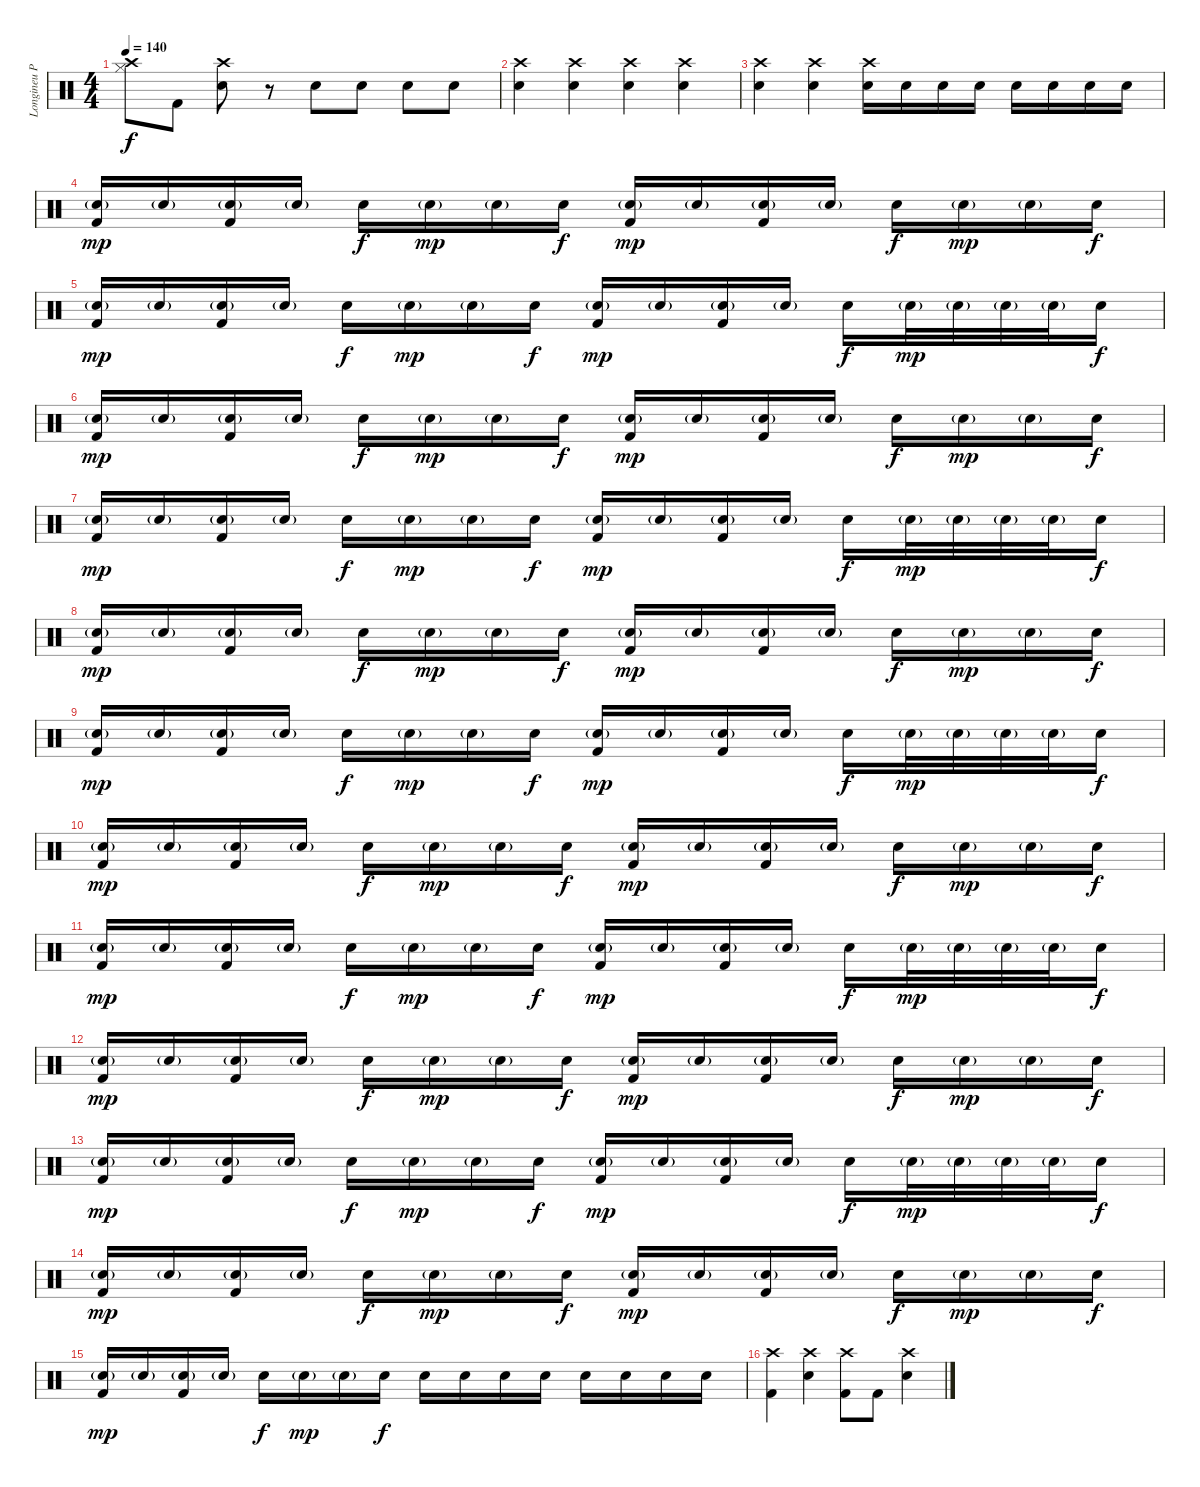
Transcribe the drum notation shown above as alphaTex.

\track ("Longineu Parsons III Drums" "Longineu P") {instrument percussion}
\staff {score}
\articulation defaults
\ts (4 4)
\tempo 140
\clef neutral
\ks c
("Hi-Hat (closed)" "Crash high (hit)").8{dy f} "Kick (hit) 2".8 ("Crash high (hit)" "Snare (hit) 2").8 r.8 "Snare (hit) 2".8 "Snare (hit) 2".8 "Snare (hit) 2".8 "Snare (hit) 2".8 |
("Crash high (hit)" "Snare (hit) 2").4 ("Crash high (hit)" "Snare (hit) 2").4 ("Crash high (hit)" "Snare (hit) 2").4 ("Crash high (hit)" "Snare (hit) 2").4 |
("Crash high (hit)" "Snare (hit) 2").4 ("Crash high (hit)" "Snare (hit) 2").4 ("Crash high (hit)" "Snare (hit) 2").16 "Snare (hit) 2".16 "Snare (hit) 2".16 "Snare (hit) 2".16 "Snare (hit) 2".16 "Snare (hit) 2".16 "Snare (hit) 2".16 "Snare (hit) 2".16 |
("Snare (hit) 2"{g} "Kick (hit) 2").16{dy mp} "Snare (hit) 2"{g}.16 ("Snare (hit) 2"{g} "Kick (hit) 2").16 "Snare (hit) 2"{g}.16 "Snare (hit) 2".16{dy f} "Snare (hit) 2"{g}.16{dy mp} "Snare (hit) 2"{g}.16 "Snare (hit) 2".16{dy f} ("Snare (hit) 2"{g} "Kick (hit) 2").16{dy mp} "Snare (hit) 2"{g}.16 ("Snare (hit) 2"{g} "Kick (hit) 2").16 "Snare (hit) 2"{g}.16 "Snare (hit) 2".16{dy f} "Snare (hit) 2"{g}.16{dy mp} "Snare (hit) 2"{g}.16 "Snare (hit) 2".16{dy f} |
("Snare (hit) 2"{g} "Kick (hit) 2").16{dy mp} "Snare (hit) 2"{g}.16 ("Snare (hit) 2"{g} "Kick (hit) 2").16 "Snare (hit) 2"{g}.16 "Snare (hit) 2".16{dy f} "Snare (hit) 2"{g}.16{dy mp} "Snare (hit) 2"{g}.16 "Snare (hit) 2".16{dy f} ("Snare (hit) 2"{g} "Kick (hit) 2").16{dy mp} "Snare (hit) 2"{g}.16 ("Snare (hit) 2"{g} "Kick (hit) 2").16 "Snare (hit) 2"{g}.16 "Snare (hit) 2".16{dy f} "Snare (hit) 2"{g}.32{dy mp} "Snare (hit) 2"{g}.32 "Snare (hit) 2"{g}.32 "Snare (hit) 2"{g}.32 "Snare (hit) 2".16{dy f} |
("Snare (hit) 2"{g} "Kick (hit) 2").16{dy mp} "Snare (hit) 2"{g}.16 ("Snare (hit) 2"{g} "Kick (hit) 2").16 "Snare (hit) 2"{g}.16 "Snare (hit) 2".16{dy f} "Snare (hit) 2"{g}.16{dy mp} "Snare (hit) 2"{g}.16 "Snare (hit) 2".16{dy f} ("Snare (hit) 2"{g} "Kick (hit) 2").16{dy mp} "Snare (hit) 2"{g}.16 ("Snare (hit) 2"{g} "Kick (hit) 2").16 "Snare (hit) 2"{g}.16 "Snare (hit) 2".16{dy f} "Snare (hit) 2"{g}.16{dy mp} "Snare (hit) 2"{g}.16 "Snare (hit) 2".16{dy f} |
("Snare (hit) 2"{g} "Kick (hit) 2").16{dy mp} "Snare (hit) 2"{g}.16 ("Snare (hit) 2"{g} "Kick (hit) 2").16 "Snare (hit) 2"{g}.16 "Snare (hit) 2".16{dy f} "Snare (hit) 2"{g}.16{dy mp} "Snare (hit) 2"{g}.16 "Snare (hit) 2".16{dy f} ("Snare (hit) 2"{g} "Kick (hit) 2").16{dy mp} "Snare (hit) 2"{g}.16 ("Snare (hit) 2"{g} "Kick (hit) 2").16 "Snare (hit) 2"{g}.16 "Snare (hit) 2".16{dy f} "Snare (hit) 2"{g}.32{dy mp} "Snare (hit) 2"{g}.32 "Snare (hit) 2"{g}.32 "Snare (hit) 2"{g}.32 "Snare (hit) 2".16{dy f} |
("Snare (hit) 2"{g} "Kick (hit) 2").16{dy mp} "Snare (hit) 2"{g}.16 ("Snare (hit) 2"{g} "Kick (hit) 2").16 "Snare (hit) 2"{g}.16 "Snare (hit) 2".16{dy f} "Snare (hit) 2"{g}.16{dy mp} "Snare (hit) 2"{g}.16 "Snare (hit) 2".16{dy f} ("Snare (hit) 2"{g} "Kick (hit) 2").16{dy mp} "Snare (hit) 2"{g}.16 ("Snare (hit) 2"{g} "Kick (hit) 2").16 "Snare (hit) 2"{g}.16 "Snare (hit) 2".16{dy f} "Snare (hit) 2"{g}.16{dy mp} "Snare (hit) 2"{g}.16 "Snare (hit) 2".16{dy f} |
("Snare (hit) 2"{g} "Kick (hit) 2").16{dy mp} "Snare (hit) 2"{g}.16 ("Snare (hit) 2"{g} "Kick (hit) 2").16 "Snare (hit) 2"{g}.16 "Snare (hit) 2".16{dy f} "Snare (hit) 2"{g}.16{dy mp} "Snare (hit) 2"{g}.16 "Snare (hit) 2".16{dy f} ("Snare (hit) 2"{g} "Kick (hit) 2").16{dy mp} "Snare (hit) 2"{g}.16 ("Snare (hit) 2"{g} "Kick (hit) 2").16 "Snare (hit) 2"{g}.16 "Snare (hit) 2".16{dy f} "Snare (hit) 2"{g}.32{dy mp} "Snare (hit) 2"{g}.32 "Snare (hit) 2"{g}.32 "Snare (hit) 2"{g}.32 "Snare (hit) 2".16{dy f} |
("Snare (hit) 2"{g} "Kick (hit) 2").16{dy mp} "Snare (hit) 2"{g}.16 ("Snare (hit) 2"{g} "Kick (hit) 2").16 "Snare (hit) 2"{g}.16 "Snare (hit) 2".16{dy f} "Snare (hit) 2"{g}.16{dy mp} "Snare (hit) 2"{g}.16 "Snare (hit) 2".16{dy f} ("Snare (hit) 2"{g} "Kick (hit) 2").16{dy mp} "Snare (hit) 2"{g}.16 ("Snare (hit) 2"{g} "Kick (hit) 2").16 "Snare (hit) 2"{g}.16 "Snare (hit) 2".16{dy f} "Snare (hit) 2"{g}.16{dy mp} "Snare (hit) 2"{g}.16 "Snare (hit) 2".16{dy f} |
("Snare (hit) 2"{g} "Kick (hit) 2").16{dy mp} "Snare (hit) 2"{g}.16 ("Snare (hit) 2"{g} "Kick (hit) 2").16 "Snare (hit) 2"{g}.16 "Snare (hit) 2".16{dy f} "Snare (hit) 2"{g}.16{dy mp} "Snare (hit) 2"{g}.16 "Snare (hit) 2".16{dy f} ("Snare (hit) 2"{g} "Kick (hit) 2").16{dy mp} "Snare (hit) 2"{g}.16 ("Snare (hit) 2"{g} "Kick (hit) 2").16 "Snare (hit) 2"{g}.16 "Snare (hit) 2".16{dy f} "Snare (hit) 2"{g}.32{dy mp} "Snare (hit) 2"{g}.32 "Snare (hit) 2"{g}.32 "Snare (hit) 2"{g}.32 "Snare (hit) 2".16{dy f} |
("Snare (hit) 2"{g} "Kick (hit) 2").16{dy mp} "Snare (hit) 2"{g}.16 ("Snare (hit) 2"{g} "Kick (hit) 2").16 "Snare (hit) 2"{g}.16 "Snare (hit) 2".16{dy f} "Snare (hit) 2"{g}.16{dy mp} "Snare (hit) 2"{g}.16 "Snare (hit) 2".16{dy f} ("Snare (hit) 2"{g} "Kick (hit) 2").16{dy mp} "Snare (hit) 2"{g}.16 ("Snare (hit) 2"{g} "Kick (hit) 2").16 "Snare (hit) 2"{g}.16 "Snare (hit) 2".16{dy f} "Snare (hit) 2"{g}.16{dy mp} "Snare (hit) 2"{g}.16 "Snare (hit) 2".16{dy f} |
("Snare (hit) 2"{g} "Kick (hit) 2").16{dy mp} "Snare (hit) 2"{g}.16 ("Snare (hit) 2"{g} "Kick (hit) 2").16 "Snare (hit) 2"{g}.16 "Snare (hit) 2".16{dy f} "Snare (hit) 2"{g}.16{dy mp} "Snare (hit) 2"{g}.16 "Snare (hit) 2".16{dy f} ("Snare (hit) 2"{g} "Kick (hit) 2").16{dy mp} "Snare (hit) 2"{g}.16 ("Snare (hit) 2"{g} "Kick (hit) 2").16 "Snare (hit) 2"{g}.16 "Snare (hit) 2".16{dy f} "Snare (hit) 2"{g}.32{dy mp} "Snare (hit) 2"{g}.32 "Snare (hit) 2"{g}.32 "Snare (hit) 2"{g}.32 "Snare (hit) 2".16{dy f} |
("Snare (hit) 2"{g} "Kick (hit) 2").16{dy mp} "Snare (hit) 2"{g}.16 ("Snare (hit) 2"{g} "Kick (hit) 2").16 "Snare (hit) 2"{g}.16 "Snare (hit) 2".16{dy f} "Snare (hit) 2"{g}.16{dy mp} "Snare (hit) 2"{g}.16 "Snare (hit) 2".16{dy f} ("Snare (hit) 2"{g} "Kick (hit) 2").16{dy mp} "Snare (hit) 2"{g}.16 ("Snare (hit) 2"{g} "Kick (hit) 2").16 "Snare (hit) 2"{g}.16 "Snare (hit) 2".16{dy f} "Snare (hit) 2"{g}.16{dy mp} "Snare (hit) 2"{g}.16 "Snare (hit) 2".16{dy f} |
("Snare (hit) 2"{g} "Kick (hit) 2").16{dy mp} "Snare (hit) 2"{g}.16 ("Snare (hit) 2"{g} "Kick (hit) 2").16 "Snare (hit) 2"{g}.16 "Snare (hit) 2".16{dy f} "Snare (hit) 2"{g}.16{dy mp} "Snare (hit) 2"{g}.16 "Snare (hit) 2".16{dy f} "Snare (hit) 2".16 "Snare (hit) 2".16 "Snare (hit) 2".16 "Snare (hit) 2".16 "Snare (hit) 2".16 "Snare (hit) 2".16 "Snare (hit) 2".16 "Snare (hit) 2".16 |
("Crash high (hit)" "Kick (hit) 2").4 ("Crash high (hit)" "Snare (hit) 2").4 ("Crash high (hit)" "Kick (hit) 2").8 "Kick (hit) 2".8 ("Crash high (hit)" "Snare (hit) 2").4
